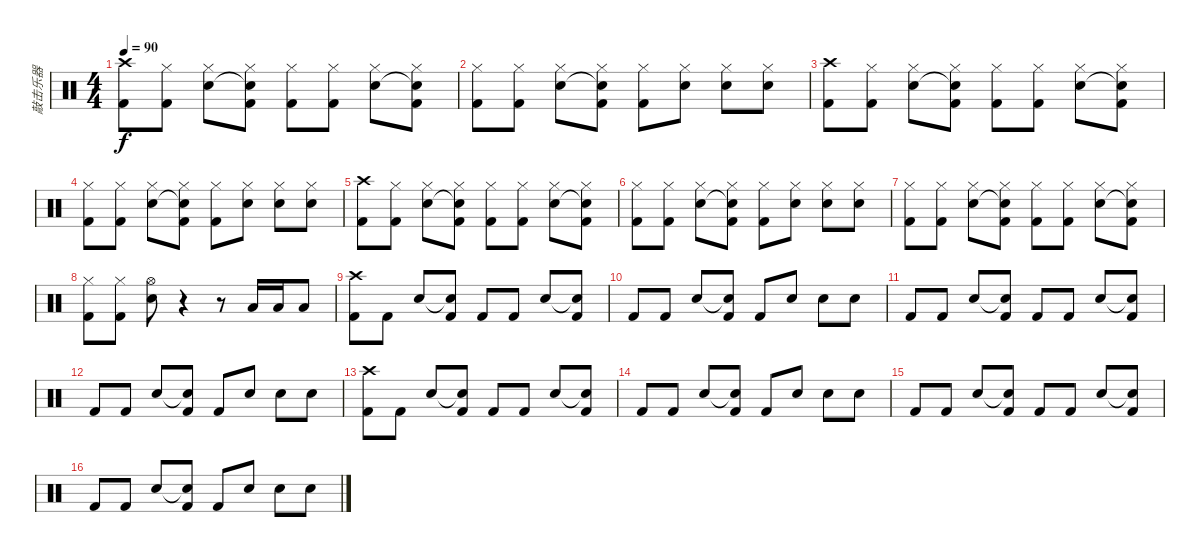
\track ("敲击乐器" "敲击乐器") {instrument percussion}
\staff {score}
\articulation defaults
\ts (4 4)
\tempo 90
\clef neutral
\ks c
("Crash high (hit)" "Kick (hit) 2").8{dy f} ("Hi-Hat (closed)" "Kick (hit) 2").8 ("Hi-Hat (closed)" "Snare (hit) 2").8 ("Hi-Hat (closed)" "Snare (hit)"{t} "Kick (hit) 2").8 ("Hi-Hat (closed)" "Kick (hit) 2").8 ("Hi-Hat (closed)" "Kick (hit) 2").8 ("Hi-Hat (closed)" "Snare (hit) 2").8 ("Hi-Hat (closed)" "Snare (hit)"{t} "Kick (hit) 2").8 |
("Hi-Hat (closed)" "Kick (hit) 2").8 ("Hi-Hat (closed)" "Kick (hit) 2").8 ("Hi-Hat (closed)" "Snare (hit) 2").8 ("Hi-Hat (closed)" "Snare (hit)"{t} "Kick (hit) 2").8 ("Hi-Hat (closed)" "Kick (hit) 2").8 ("Hi-Hat (closed)" "Snare (hit) 2").8 ("Hi-Hat (closed)" "Snare (hit) 2").8 ("Hi-Hat (closed)" "Snare (hit) 2").8 |
("Crash high (hit)" "Kick (hit) 2").8 ("Hi-Hat (closed)" "Kick (hit) 2").8 ("Hi-Hat (closed)" "Snare (hit) 2").8 ("Hi-Hat (closed)" "Snare (hit)"{t} "Kick (hit) 2").8 ("Hi-Hat (closed)" "Kick (hit) 2").8 ("Hi-Hat (closed)" "Kick (hit) 2").8 ("Hi-Hat (closed)" "Snare (hit) 2").8 ("Hi-Hat (closed)" "Snare (hit)"{t} "Kick (hit) 2").8 |
("Hi-Hat (closed)" "Kick (hit) 2").8 ("Hi-Hat (closed)" "Kick (hit) 2").8 ("Hi-Hat (closed)" "Snare (hit) 2").8 ("Hi-Hat (closed)" "Snare (hit)"{t} "Kick (hit) 2").8 ("Hi-Hat (closed)" "Kick (hit) 2").8 ("Hi-Hat (closed)" "Snare (hit) 2").8 ("Hi-Hat (closed)" "Snare (hit) 2").8 ("Hi-Hat (closed)" "Snare (hit) 2").8 |
("Crash high (hit)" "Kick (hit) 2").8 ("Hi-Hat (closed)" "Kick (hit) 2").8 ("Hi-Hat (closed)" "Snare (hit) 2").8 ("Hi-Hat (closed)" "Snare (hit)"{t} "Kick (hit) 2").8 ("Hi-Hat (closed)" "Kick (hit) 2").8 ("Hi-Hat (closed)" "Kick (hit) 2").8 ("Hi-Hat (closed)" "Snare (hit) 2").8 ("Hi-Hat (closed)" "Snare (hit)"{t} "Kick (hit) 2").8 |
("Hi-Hat (closed)" "Kick (hit) 2").8 ("Hi-Hat (closed)" "Kick (hit) 2").8 ("Hi-Hat (closed)" "Snare (hit) 2").8 ("Hi-Hat (closed)" "Snare (hit)"{t} "Kick (hit) 2").8 ("Hi-Hat (closed)" "Kick (hit) 2").8 ("Hi-Hat (closed)" "Snare (hit) 2").8 ("Hi-Hat (closed)" "Snare (hit) 2").8 ("Hi-Hat (closed)" "Snare (hit) 2").8 |
("Hi-Hat (closed)" "Kick (hit) 2").8 ("Hi-Hat (closed)" "Kick (hit) 2").8 ("Hi-Hat (closed)" "Snare (hit) 2").8 ("Hi-Hat (closed)" "Snare (hit)"{t} "Kick (hit) 2").8 ("Hi-Hat (closed)" "Kick (hit) 2").8 ("Hi-Hat (closed)" "Kick (hit) 2").8 ("Hi-Hat (closed)" "Snare (hit) 2").8 ("Hi-Hat (closed)" "Snare (hit)"{t} "Kick (hit) 2").8 |
("Hi-Hat (closed)" "Kick (hit) 2").8 ("Hi-Hat (closed)" "Kick (hit) 2").8 ("Hi-Hat (open)" "Snare (hit) 2").8 r.4 r.8 "Low Tom (hit)".16 "Low Floor Tom (hit)".16 "Low Floor Tom (hit)".8 |
("Crash high (hit)" "Kick (hit) 2").8 "Kick (hit) 2".8 "Snare (hit) 2".8 ("Snare (hit)"{t} "Kick (hit) 2").8 "Kick (hit) 2".8 "Kick (hit) 2".8 "Snare (hit) 2".8 ("Snare (hit)"{t} "Kick (hit) 2").8 |
"Kick (hit) 2".8 "Kick (hit) 2".8 "Snare (hit) 2".8 ("Snare (hit)"{t} "Kick (hit) 2").8 "Kick (hit) 2".8 "Snare (hit) 2".8 "Snare (hit) 2".8 "Snare (hit) 2".8 |
"Kick (hit) 2".8 "Kick (hit) 2".8 "Snare (hit) 2".8 ("Snare (hit)"{t} "Kick (hit) 2").8 "Kick (hit) 2".8 "Kick (hit) 2".8 "Snare (hit) 2".8 ("Snare (hit)"{t} "Kick (hit) 2").8 |
"Kick (hit) 2".8 "Kick (hit) 2".8 "Snare (hit) 2".8 ("Snare (hit)"{t} "Kick (hit) 2").8 "Kick (hit) 2".8 "Snare (hit) 2".8 "Snare (hit) 2".8 "Snare (hit) 2".8 |
("Crash high (hit)" "Kick (hit) 2").8 "Kick (hit) 2".8 "Snare (hit) 2".8 ("Snare (hit)"{t} "Kick (hit) 2").8 "Kick (hit) 2".8 "Kick (hit) 2".8 "Snare (hit) 2".8 ("Snare (hit)"{t} "Kick (hit) 2").8 |
"Kick (hit) 2".8 "Kick (hit) 2".8 "Snare (hit) 2".8 ("Snare (hit)"{t} "Kick (hit) 2").8 "Kick (hit) 2".8 "Snare (hit) 2".8 "Snare (hit) 2".8 "Snare (hit) 2".8 |
"Kick (hit) 2".8 "Kick (hit) 2".8 "Snare (hit) 2".8 ("Snare (hit)"{t} "Kick (hit) 2").8 "Kick (hit) 2".8 "Kick (hit) 2".8 "Snare (hit) 2".8 ("Snare (hit)"{t} "Kick (hit) 2").8 |
"Kick (hit) 2".8 "Kick (hit) 2".8 "Snare (hit) 2".8 ("Snare (hit)"{t} "Kick (hit) 2").8 "Kick (hit) 2".8 "Snare (hit) 2".8 "Snare (hit) 2".8 "Snare (hit) 2".8
